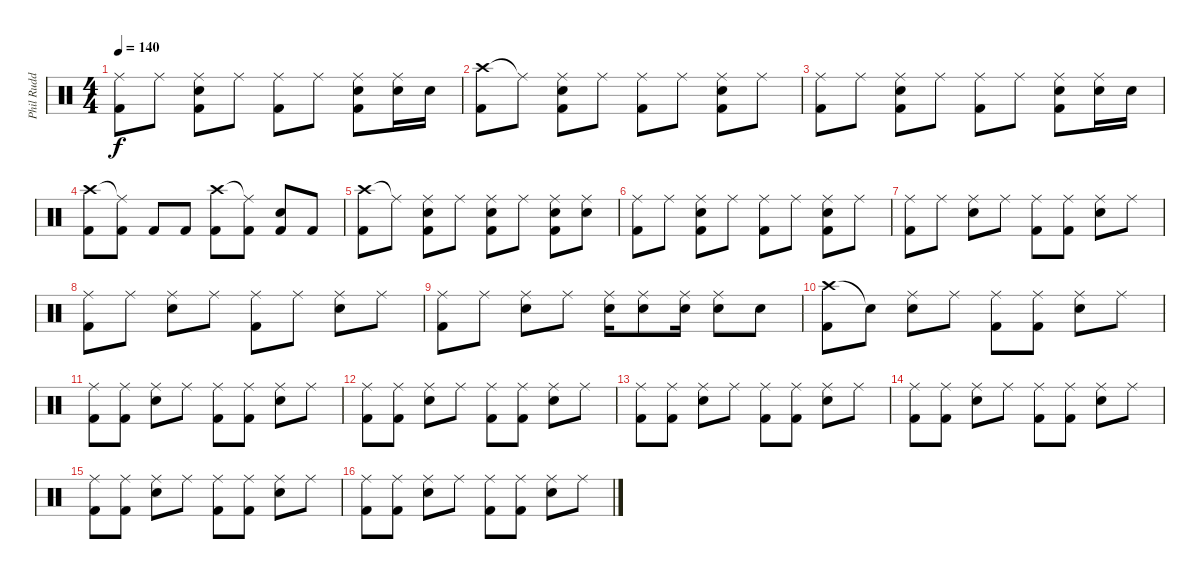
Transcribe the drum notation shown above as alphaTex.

\track ("Phil Rudd" "Phil Rudd") {instrument percussion}
\staff {score}
\articulation defaults
\ts (4 4)
\tempo 140
\clef neutral
\ks c
("Ride (middle)" "Kick (hit) 2").8{dy f} "Ride (middle)".8 ("Ride (middle)" "Electric Snare (hit)" "Kick (hit) 2").8 "Ride (middle)".8 ("Ride (middle)" "Kick (hit) 2").8 "Ride (middle)".8 ("Ride (middle)" "Electric Snare (hit)" "Kick (hit) 2").8 ("Ride (middle)" "Electric Snare (hit)").16 "Electric Snare (hit)".16 |
("Crash high (hit)" "Kick (hit) 2").8 "Ride (middle)"{t}.8 ("Ride (middle)" "Electric Snare (hit)" "Kick (hit) 2").8 "Ride (middle)".8 ("Ride (middle)" "Kick (hit) 2").8 "Ride (middle)".8 ("Ride (middle)" "Electric Snare (hit)" "Kick (hit) 2").8 "Ride (middle)".8 |
("Ride (middle)" "Kick (hit) 2").8 "Ride (middle)".8 ("Ride (middle)" "Electric Snare (hit)" "Kick (hit) 2").8 "Ride (middle)".8 ("Ride (middle)" "Kick (hit) 2").8 "Ride (middle)".8 ("Ride (middle)" "Electric Snare (hit)" "Kick (hit) 2").8 ("Ride (middle)" "Electric Snare (hit)").16 "Electric Snare (hit)".16 |
("Crash high (hit)" "Kick (hit) 2").8 ("Ride (middle)"{t} "Kick (hit) 2").8 "Kick (hit) 2".8 "Kick (hit) 2".8 ("Crash high (hit)" "Kick (hit) 2").8 ("Ride (middle)"{t} "Kick (hit) 2").8 ("Electric Snare (hit)" "Kick (hit) 2").8 "Kick (hit) 2".8 |
("Crash high (hit)" "Kick (hit) 2").8 "Ride (middle)"{t}.8 ("Ride (middle)" "Electric Snare (hit)" "Kick (hit) 2").8 "Ride (middle)".8 ("Ride (middle)" "Electric Snare (hit)" "Kick (hit) 2").8 "Ride (middle)".8 ("Ride (middle)" "Electric Snare (hit)" "Kick (hit) 2").8 ("Ride (middle)" "Electric Snare (hit)").8 |
("Ride (middle)" "Kick (hit) 2").8 "Ride (middle)".8 ("Ride (middle)" "Electric Snare (hit)" "Kick (hit) 2").8 "Ride (middle)".8 ("Ride (middle)" "Kick (hit) 2").8 "Ride (middle)".8 ("Ride (middle)" "Electric Snare (hit)" "Kick (hit) 2").8 "Ride (middle)".8 |
("Ride (middle)" "Kick (hit) 2").8 "Ride (middle)".8 ("Ride (middle)" "Electric Snare (hit)").8 "Ride (middle)".8 ("Ride (middle)" "Kick (hit) 2").8 ("Ride (middle)" "Kick (hit) 2").8 ("Ride (middle)" "Electric Snare (hit)").8 "Ride (middle)".8 |
("Ride (middle)" "Kick (hit) 2").8 "Ride (middle)".8 ("Ride (middle)" "Electric Snare (hit)").8 "Ride (middle)".8 ("Ride (middle)" "Kick (hit) 2").8 "Ride (middle)".8 ("Ride (middle)" "Electric Snare (hit)").8 "Ride (middle)".8 |
("Ride (middle)" "Kick (hit) 2").8 "Ride (middle)".8 ("Ride (middle)" "Electric Snare (hit)").8 "Ride (middle)".8 ("Ride (middle)" "Electric Snare (hit)").16 ("Ride (middle)" "Electric Snare (hit)").8 ("Ride (middle)" "Electric Snare (hit)").16 ("Ride (middle)" "Electric Snare (hit)").8 "Electric Snare (hit)".8 |
("Crash high (hit)" "Kick (hit) 2").8 "Snare (hit)"{t}.8 ("Ride (middle)" "Electric Snare (hit)").8 "Ride (middle)".8 ("Ride (middle)" "Kick (hit) 2").8 ("Ride (middle)" "Kick (hit) 2").8 ("Ride (middle)" "Electric Snare (hit)").8 "Ride (middle)".8 |
("Ride (middle)" "Kick (hit) 2").8 ("Ride (middle)" "Kick (hit) 2").8 ("Ride (middle)" "Electric Snare (hit)").8 "Ride (middle)".8 ("Ride (middle)" "Kick (hit) 2").8 ("Ride (middle)" "Kick (hit) 2").8 ("Ride (middle)" "Electric Snare (hit)").8 "Ride (middle)".8 |
("Ride (middle)" "Kick (hit) 2").8 ("Ride (middle)" "Kick (hit) 2").8 ("Ride (middle)" "Electric Snare (hit)").8 "Ride (middle)".8 ("Ride (middle)" "Kick (hit) 2").8 ("Ride (middle)" "Kick (hit) 2").8 ("Ride (middle)" "Electric Snare (hit)").8 "Ride (middle)".8 |
("Ride (middle)" "Kick (hit) 2").8 ("Ride (middle)" "Kick (hit) 2").8 ("Ride (middle)" "Electric Snare (hit)").8 "Ride (middle)".8 ("Ride (middle)" "Kick (hit) 2").8 ("Ride (middle)" "Kick (hit) 2").8 ("Ride (middle)" "Electric Snare (hit)").8 "Ride (middle)".8 |
("Ride (middle)" "Kick (hit) 2").8 ("Ride (middle)" "Kick (hit) 2").8 ("Ride (middle)" "Electric Snare (hit)").8 "Ride (middle)".8 ("Ride (middle)" "Kick (hit) 2").8 ("Ride (middle)" "Kick (hit) 2").8 ("Ride (middle)" "Electric Snare (hit)").8 "Ride (middle)".8 |
("Ride (middle)" "Kick (hit) 2").8 ("Ride (middle)" "Kick (hit) 2").8 ("Ride (middle)" "Electric Snare (hit)").8 "Ride (middle)".8 ("Ride (middle)" "Kick (hit) 2").8 ("Ride (middle)" "Kick (hit) 2").8 ("Ride (middle)" "Electric Snare (hit)").8 "Ride (middle)".8 |
("Ride (middle)" "Kick (hit) 2").8 ("Ride (middle)" "Kick (hit) 2").8 ("Ride (middle)" "Electric Snare (hit)").8 "Ride (middle)".8 ("Ride (middle)" "Kick (hit) 2").8 ("Ride (middle)" "Kick (hit) 2").8 ("Ride (middle)" "Electric Snare (hit)").8 "Ride (middle)".8
